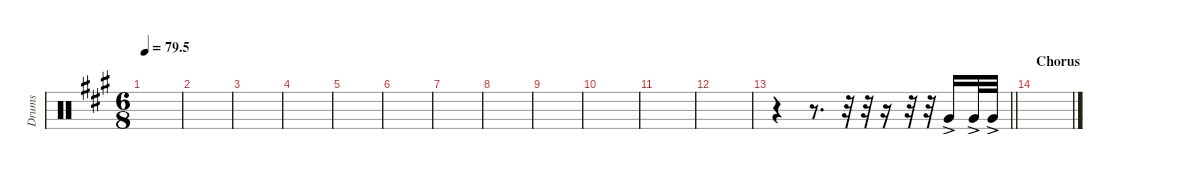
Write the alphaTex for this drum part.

\defaultSystemsLayout 4
\hideDynamics
\bracketExtendMode nobrackets
\otherSystemsTrackNameOrientation horizontal
\track ("Tom 04" "Drums") {instrument percussion}
\staff {score}
\articulation defaults
\ts (6 8)
\tempo
79.5
\accidentals auto
\clef neutral
\ottava regular
\simile none
\scale
0.333333
\ks a
|
\scale
0.333333 |
\scale
0.333333 |
\scale
0.333333 |
\scale
0.333333 |
\scale
0.333333 |
\scale
0.333333 |
\scale
0.333333 |
\scale
0.333333 |
\scale
0.333333 |
\scale
0.333333 |
\scale
0.333333 |
\scale
0.333333
\barLineRight lightlight
r.4 r.8{d} r.32 r.32 r.16 r.32 r.32 "Very Low Tom (hit)"{ac acc forcenatural}.16 "Very Low Tom (hit)"{ac acc forcenatural}.32 "Very Low Tom (hit)"{ac acc forcenatural}.32 |
\section ("" "Chorus")
\scale
0.333333 |
\scale
0.333333 |
\scale
0.333333
